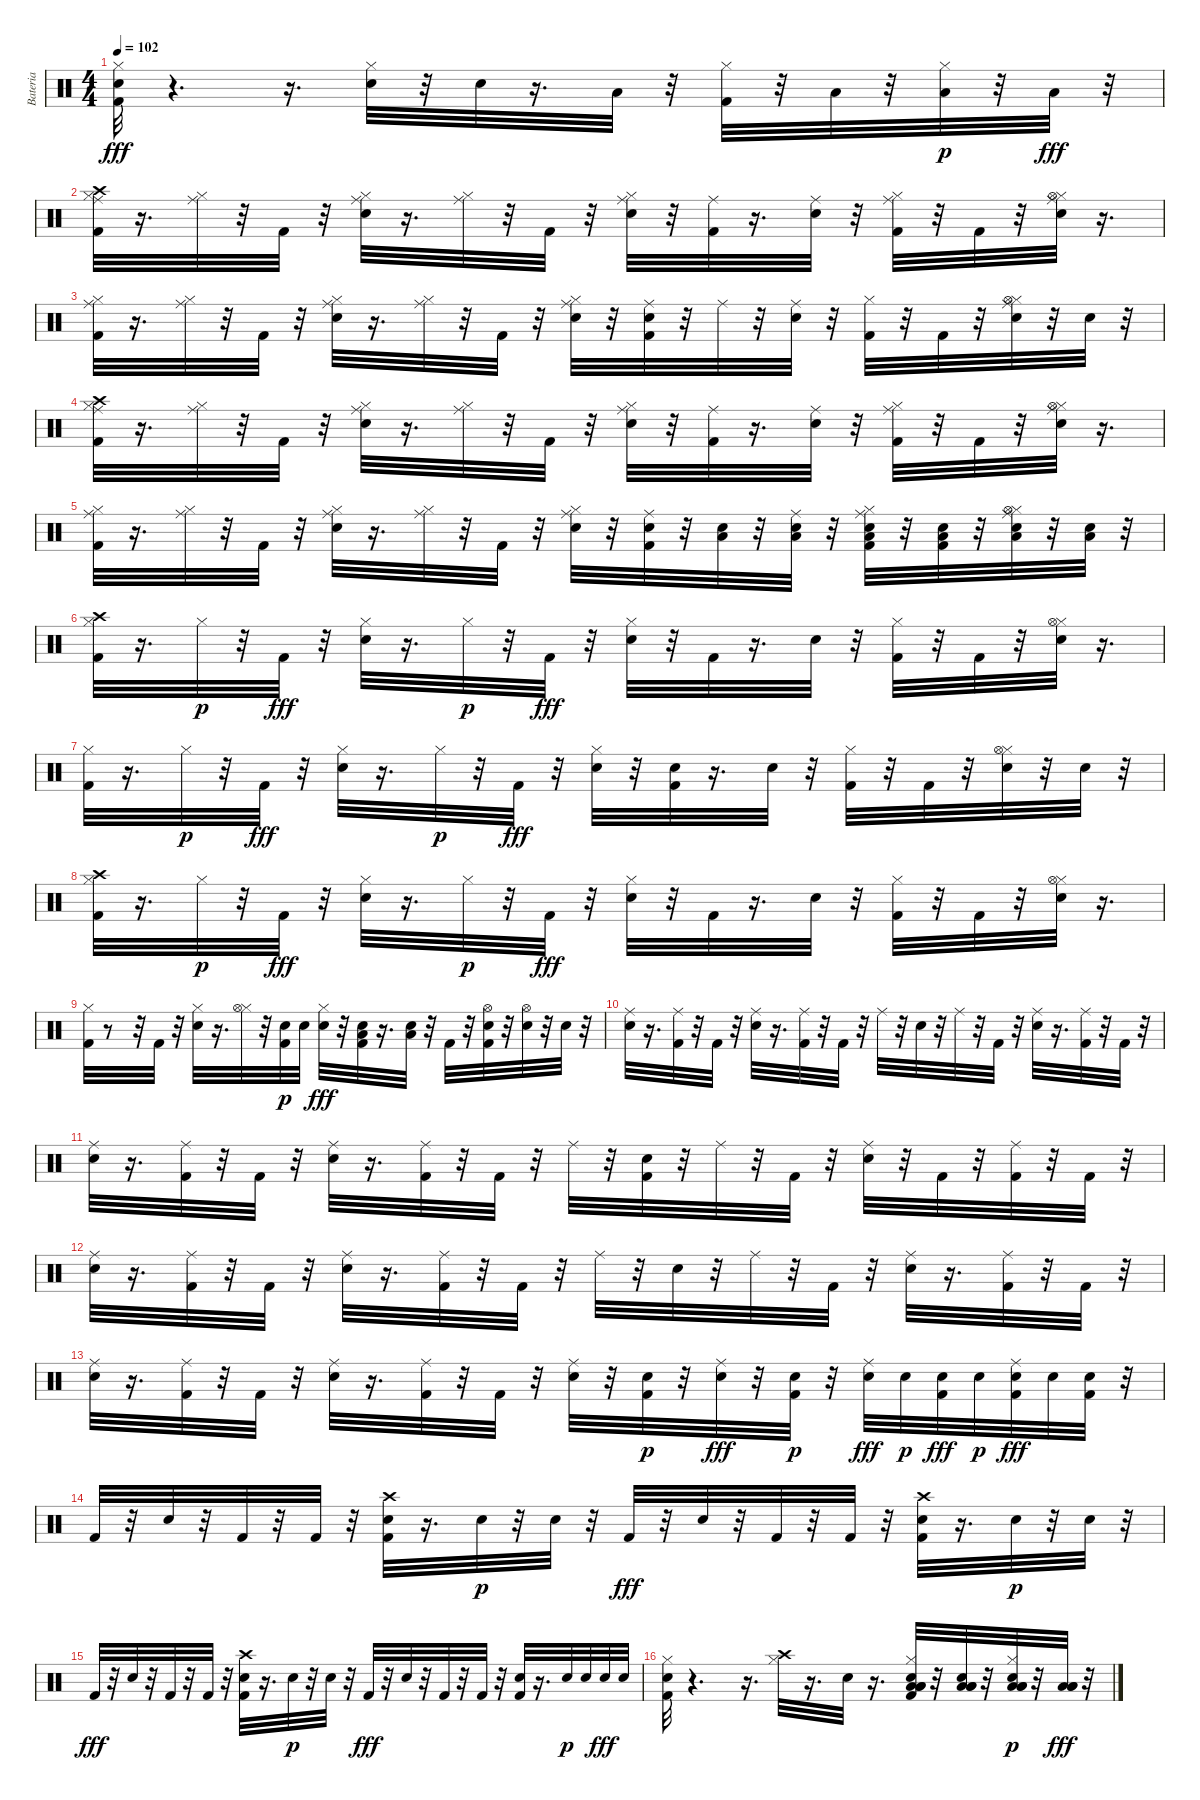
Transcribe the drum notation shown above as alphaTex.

\track ("Bateria" "Bateria") {instrument percussion}
\staff {score}
\articulation defaults
\ts (4 4)
\tempo 102
\clef neutral
\ks c
("Kick (hit) 2" "Snare (hit) 2" "Hi-Hat (closed)").32{dy fff} r.4{d} r.16{d} ("Snare (hit) 2" "Hi-Hat (closed)").32 r.32 "Snare (hit) 2".32 r.16{d} "Low Tom (hit)".32 r.32 ("Kick (hit) 2" "Hi-Hat (closed)").32 r.32 "Low Tom (hit)".32 r.32 ("Low Floor Tom (hit)" "Hi-Hat (closed)").32{dy p} r.32 "Low Floor Tom (hit)".32{dy fff} r.32 |
("Kick (hit) 2" "Hi-Hat (closed)" "Crash high (hit)" "Ride (middle)").32 r.16{d} ("Hi-Hat (closed)" "Ride (middle)").32 r.32 "Kick (hit) 2".32 r.32 ("Snare (hit) 2" "Hi-Hat (closed)" "Ride (middle)").32 r.16{d} ("Hi-Hat (closed)" "Ride (middle)").32 r.32 "Kick (hit) 2".32 r.32 ("Snare (hit) 2" "Hi-Hat (closed)" "Ride (middle)").32 r.32 ("Kick (hit) 2" "Ride (middle)").32 r.16{d} ("Snare (hit) 2" "Ride (middle)").32 r.32 ("Kick (hit) 2" "Hi-Hat (closed)" "Ride (middle)").32 r.32 "Kick (hit) 2".32 r.32 ("Snare (hit) 2" "Hi-Hat (closed)" "Hi-Hat (open)" "Ride (middle)").32 r.16{d} |
("Kick (hit) 2" "Hi-Hat (closed)" "Ride (middle)").32 r.16{d} ("Hi-Hat (closed)" "Ride (middle)").32 r.32 "Kick (hit) 2".32 r.32 ("Snare (hit) 2" "Hi-Hat (closed)" "Ride (middle)").32 r.16{d} ("Hi-Hat (closed)" "Ride (middle)").32 r.32 "Kick (hit) 2".32 r.32 ("Snare (hit) 2" "Hi-Hat (closed)" "Ride (middle)").32 r.32 ("Kick (hit) 2" "Snare (hit) 2" "Ride (middle)").32 r.32 "Ride (middle)".32 r.32 ("Snare (hit) 2" "Ride (middle)").32 r.32 ("Kick (hit) 2" "Hi-Hat (closed)").32 r.32 "Kick (hit) 2".32 r.32 ("Snare (hit) 2" "Hi-Hat (closed)" "Hi-Hat (open)" "Ride (middle)").32 r.32 "Snare (hit) 2".32 r.32 |
("Kick (hit) 2" "Hi-Hat (closed)" "Crash high (hit)" "Ride (middle)").32 r.16{d} ("Hi-Hat (closed)" "Ride (middle)").32 r.32 "Kick (hit) 2".32 r.32 ("Snare (hit) 2" "Hi-Hat (closed)" "Ride (middle)").32 r.16{d} ("Hi-Hat (closed)" "Ride (middle)").32 r.32 "Kick (hit) 2".32 r.32 ("Snare (hit) 2" "Hi-Hat (closed)" "Ride (middle)").32 r.32 ("Kick (hit) 2" "Ride (middle)").32 r.16{d} ("Snare (hit) 2" "Ride (middle)").32 r.32 ("Kick (hit) 2" "Hi-Hat (closed)" "Ride (middle)").32 r.32 "Kick (hit) 2".32 r.32 ("Snare (hit) 2" "Hi-Hat (closed)" "Hi-Hat (open)" "Ride (middle)").32 r.16{d} |
("Kick (hit) 2" "Hi-Hat (closed)" "Ride (middle)").32 r.16{d} ("Hi-Hat (closed)" "Ride (middle)").32 r.32 "Kick (hit) 2".32 r.32 ("Snare (hit) 2" "Hi-Hat (closed)" "Ride (middle)").32 r.16{d} ("Hi-Hat (closed)" "Ride (middle)").32 r.32 "Kick (hit) 2".32 r.32 ("Snare (hit) 2" "Hi-Hat (closed)" "Ride (middle)").32 r.32 ("Kick (hit) 2" "Snare (hit) 2" "Ride (middle)").32 r.32 ("Snare (hit) 2" "Low Tom (hit)").32 r.32 ("Snare (hit) 2" "Low Tom (hit)" "Ride (middle)").32 r.32 ("Kick (hit) 2" "Snare (hit) 2" "Hi-Hat (closed)" "Low Tom (hit)" "Ride (middle)").32 r.32 ("Kick (hit) 2" "Snare (hit) 2" "Low Floor Tom (hit)").32 r.32 ("Snare (hit) 2" "Low Floor Tom (hit)" "Hi-Hat (closed)" "Hi-Hat (open)" "Ride (middle)").32 r.32 ("Snare (hit) 2" "Low Floor Tom (hit)").32 r.32 |
("Kick (hit) 2" "Hi-Hat (closed)" "Crash high (hit)").32 r.16{d} "Hi-Hat (closed)".32{dy p} r.32 "Kick (hit) 2".32{dy fff} r.32 ("Snare (hit) 2" "Hi-Hat (closed)").32 r.16{d} "Hi-Hat (closed)".32{dy p} r.32 "Kick (hit) 2".32{dy fff} r.32 ("Snare (hit) 2" "Hi-Hat (closed)").32 r.32 "Kick (hit) 2".32 r.16{d} "Snare (hit) 2".32 r.32 ("Kick (hit) 2" "Hi-Hat (closed)").32 r.32 "Kick (hit) 2".32 r.32 ("Snare (hit) 2" "Hi-Hat (closed)" "Hi-Hat (open)").32 r.16{d} |
("Kick (hit) 2" "Hi-Hat (closed)").32 r.16{d} "Hi-Hat (closed)".32{dy p} r.32 "Kick (hit) 2".32{dy fff} r.32 ("Snare (hit) 2" "Hi-Hat (closed)").32 r.16{d} "Hi-Hat (closed)".32{dy p} r.32 "Kick (hit) 2".32{dy fff} r.32 ("Snare (hit) 2" "Hi-Hat (closed)").32 r.32 ("Kick (hit) 2" "Snare (hit) 2").32 r.16{d} "Snare (hit) 2".32 r.32 ("Kick (hit) 2" "Hi-Hat (closed)").32 r.32 "Kick (hit) 2".32 r.32 ("Snare (hit) 2" "Hi-Hat (closed)" "Hi-Hat (open)").32 r.32 "Snare (hit) 2".32 r.32 |
("Kick (hit) 2" "Hi-Hat (closed)" "Crash high (hit)").32 r.16{d} "Hi-Hat (closed)".32{dy p} r.32 "Kick (hit) 2".32{dy fff} r.32 ("Snare (hit) 2" "Hi-Hat (closed)").32 r.16{d} "Hi-Hat (closed)".32{dy p} r.32 "Kick (hit) 2".32{dy fff} r.32 ("Snare (hit) 2" "Hi-Hat (closed)").32 r.32 "Kick (hit) 2".32 r.16{d} "Snare (hit) 2".32 r.32 ("Kick (hit) 2" "Hi-Hat (closed)").32 r.32 "Kick (hit) 2".32 r.32 ("Snare (hit) 2" "Hi-Hat (closed)" "Hi-Hat (open)").32 r.16{d} |
("Kick (hit) 2" "Hi-Hat (closed)").32 r.8 r.32 "Kick (hit) 2".32 r.32 ("Snare (hit) 2" "Hi-Hat (closed)").32 r.16{d} ("Hi-Hat (closed)" "Hi-Hat (open)").32 r.32 ("Kick (hit) 2" "Snare (hit) 2").32{dy p} "Snare (hit) 2".32 ("Snare (hit) 2" "Hi-Hat (closed)").32{dy fff} r.32 ("Kick (hit) 2" "Snare (hit) 2" "Low Tom (hit)").32 r.16{d} ("Snare (hit) 2" "Low Floor Tom (hit)").32 r.32 "Kick (hit) 2".32 r.32 ("Kick (hit) 2" "Snare (hit) 2" "Hi-Hat (open)").32 r.32 ("Snare (hit) 2" "Hi-Hat (open)").32 r.32 "Snare (hit) 2".32 r.32 |
("Snare (hit) 2" "Ride (middle)").32 r.16{d} ("Kick (hit) 2" "Ride (middle)").32 r.32 "Kick (hit) 2".32 r.32 ("Snare (hit) 2" "Ride (middle)").32 r.16{d} ("Kick (hit) 2" "Ride (middle)").32 r.32 "Kick (hit) 2".32 r.32 "Ride (middle)".32 r.32 "Snare (hit) 2".32 r.32 "Ride (middle)".32 r.32 "Kick (hit) 2".32 r.32 ("Snare (hit) 2" "Ride (middle)").32 r.16{d} ("Kick (hit) 2" "Ride (middle)").32 r.32 "Kick (hit) 2".32 r.32 |
("Snare (hit) 2" "Ride (middle)").32 r.16{d} ("Kick (hit) 2" "Ride (middle)").32 r.32 "Kick (hit) 2".32 r.32 ("Snare (hit) 2" "Ride (middle)").32 r.16{d} ("Kick (hit) 2" "Ride (middle)").32 r.32 "Kick (hit) 2".32 r.32 "Ride (middle)".32 r.32 ("Kick (hit) 2" "Snare (hit) 2").32 r.32 "Ride (middle)".32 r.32 "Kick (hit) 2".32 r.32 ("Snare (hit) 2" "Ride (middle)").32 r.32 "Kick (hit) 2".32 r.32 ("Kick (hit) 2" "Ride (middle)").32 r.32 "Kick (hit) 2".32 r.32 |
("Snare (hit) 2" "Ride (middle)").32 r.16{d} ("Kick (hit) 2" "Ride (middle)").32 r.32 "Kick (hit) 2".32 r.32 ("Snare (hit) 2" "Ride (middle)").32 r.16{d} ("Kick (hit) 2" "Ride (middle)").32 r.32 "Kick (hit) 2".32 r.32 "Ride (middle)".32 r.32 "Snare (hit) 2".32 r.32 "Ride (middle)".32 r.32 "Kick (hit) 2".32 r.32 ("Snare (hit) 2" "Ride (middle)").32 r.16{d} ("Kick (hit) 2" "Ride (middle)").32 r.32 "Kick (hit) 2".32 r.32 |
("Snare (hit) 2" "Ride (middle)").32 r.16{d} ("Kick (hit) 2" "Ride (middle)").32 r.32 "Kick (hit) 2".32 r.32 ("Snare (hit) 2" "Ride (middle)").32 r.16{d} ("Kick (hit) 2" "Ride (middle)").32 r.32 "Kick (hit) 2".32 r.32 ("Snare (hit) 2" "Ride (middle)").32 r.32 ("Kick (hit) 2" "Snare (hit) 2").32{dy p} r.32 ("Snare (hit) 2" "Ride (middle)").32{dy fff} r.32 ("Kick (hit) 2" "Snare (hit) 2").32{dy p} r.32 ("Snare (hit) 2" "Ride (middle)").32{dy fff} "Snare (hit) 2".32{dy p} ("Kick (hit) 2" "Snare (hit) 2").32{dy fff} "Snare (hit) 2".32{dy p} ("Kick (hit) 2" "Snare (hit) 2" "Ride (middle)").32{dy fff} "Snare (hit) 2".32 ("Kick (hit) 2" "Snare (hit) 2").32 r.32 |
"Kick (hit) 2".32 r.32 "Snare (hit) 2".32 r.32 "Kick (hit) 2".32 r.32 "Kick (hit) 2".32 r.32 ("Kick (hit) 2" "Snare (hit) 2" "Crash high (hit)").32 r.16{d} "Snare (hit) 2".32{dy p} r.32 "Snare (hit) 2".32 r.32 "Kick (hit) 2".32{dy fff} r.32 "Snare (hit) 2".32 r.32 "Kick (hit) 2".32 r.32 "Kick (hit) 2".32 r.32 ("Kick (hit) 2" "Snare (hit) 2" "Crash high (hit)").32 r.16{d} "Snare (hit) 2".32{dy p} r.32 "Snare (hit) 2".32 r.32 |
"Kick (hit) 2".32{dy fff} r.32 "Snare (hit) 2".32 r.32 "Kick (hit) 2".32 r.32 "Kick (hit) 2".32 r.32 ("Kick (hit) 2" "Snare (hit) 2" "Crash high (hit)").32 r.16{d} "Snare (hit) 2".32{dy p} r.32 "Snare (hit) 2".32 r.32 "Kick (hit) 2".32{dy fff} r.32 "Snare (hit) 2".32 r.32 "Kick (hit) 2".32 r.32 "Kick (hit) 2".32 r.32 ("Kick (hit) 2" "Snare (hit) 2").32 r.16{d} "Snare (hit) 2".32{dy p} "Snare (hit) 2".32 "Snare (hit) 2".32{dy fff} "Snare (hit) 2".32 |
("Kick (hit) 2" "Snare (hit) 2" "Hi-Hat (closed)").32 r.4{d} r.16{d} ("Hi-Hat (closed)" "Crash high (hit)").32 r.16{d} "Snare (hit) 2".32 r.16{d} ("Kick (hit) 2" "Snare (hit) 2" "Hi-Hat (closed)" "Low Tom (hit)" "Low Tom (hit)" "Low Tom (hit)").32 r.32 ("Snare (hit) 2" "Low Tom (hit)" "Low Tom (hit)" "Low Tom (hit)").32 r.32 ("Snare (hit) 2" "Low Floor Tom (hit)" "Low Floor Tom (hit)" "Low Floor Tom (hit)" "Hi-Hat (closed)").32{dy p} r.32 ("Low Floor Tom (hit)" "Low Floor Tom (hit)" "Low Floor Tom (hit)").32{dy fff} r.32
